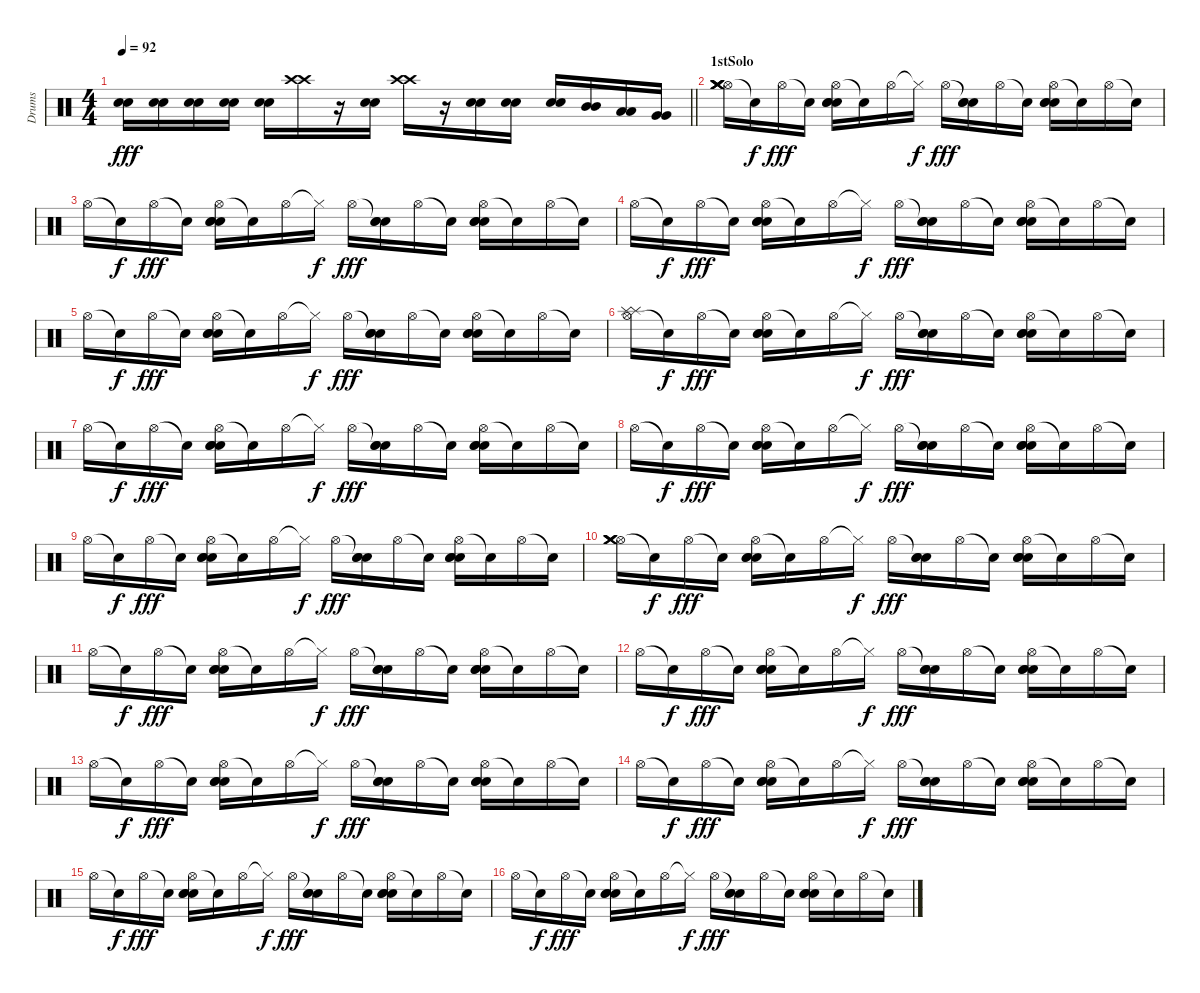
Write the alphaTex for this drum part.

\track ("Drums" "Drums") {instrument percussion}
\staff {score}
\articulation defaults
\ts (4 4)
\tempo 92
\clef neutral
\barLineRight lightlight
\ks c
("Snare (hit) 2" "Snare (hit) 2").16{dy fff} ("Snare (hit) 2" "Snare (hit) 2").16 ("Snare (hit) 2" "Snare (hit) 2").16 ("Snare (hit) 2" "Snare (hit) 2").16 ("Snare (hit) 2" "Snare (hit) 2").16 ("Crash high (hit)" "Crash high (hit)").16 r.16 ("Snare (hit) 2" "Snare (hit) 2").16 ("Crash high (hit)" "Crash high (hit)").16 r.16 ("Snare (hit) 2" "Snare (hit) 2").16 ("Snare (hit) 2" "Snare (hit) 2").16 ("Snare (hit) 2" "Snare (hit) 2").16 ("Mid Tom (hit)" "Mid Tom (hit)").16 ("Low Tom (hit)" "Low Tom (hit)").16 ("Very Low Tom (hit)" "Very Low Tom (hit)").16 |
\section ("" "1stSolo")
("Hi-Hat (open)" "Crash medium (hit)" "Crash medium (hit)" "Crash medium (hit)" "Crash medium (hit)").16 "Snare (hit)"{t}.16{dy f} "Hi-Hat (open)".16{dy fff} "Snare (hit)"{t}.16 ("Hi-Hat (open)" "Snare (hit) 2" "Snare (hit) 2" "Snare (hit) 2").16 "Snare (hit)"{t}.16 "Hi-Hat (open)".16 "Hi-Hat (closed)"{t}.16{dy f} "Hi-Hat (open)".16{dy fff} ("Snare (hit)"{t} "Snare (hit) 2" "Snare (hit) 2").16 "Hi-Hat (open)".16 "Snare (hit)"{t}.16 ("Hi-Hat (open)" "Snare (hit) 2" "Snare (hit) 2" "Snare (hit) 2").16 "Snare (hit)"{t}.16 "Hi-Hat (open)".16 "Snare (hit)"{t}.16 |
"Hi-Hat (open)".16 "Snare (hit)"{t}.16{dy f} "Hi-Hat (open)".16{dy fff} "Snare (hit)"{t}.16 ("Hi-Hat (open)" "Snare (hit) 2" "Snare (hit) 2" "Snare (hit) 2").16 "Snare (hit)"{t}.16 "Hi-Hat (open)".16 "Hi-Hat (closed)"{t}.16{dy f} "Hi-Hat (open)".16{dy fff} ("Snare (hit)"{t} "Snare (hit) 2" "Snare (hit) 2").16 "Hi-Hat (open)".16 "Snare (hit)"{t}.16 ("Hi-Hat (open)" "Snare (hit) 2" "Snare (hit) 2" "Snare (hit) 2").16 "Snare (hit)"{t}.16 "Hi-Hat (open)".16 "Snare (hit)"{t}.16 |
"Hi-Hat (open)".16 "Snare (hit)"{t}.16{dy f} "Hi-Hat (open)".16{dy fff} "Snare (hit)"{t}.16 ("Hi-Hat (open)" "Snare (hit) 2" "Snare (hit) 2" "Snare (hit) 2").16 "Snare (hit)"{t}.16 "Hi-Hat (open)".16 "Hi-Hat (closed)"{t}.16{dy f} "Hi-Hat (open)".16{dy fff} ("Snare (hit)"{t} "Snare (hit) 2" "Snare (hit) 2").16 "Hi-Hat (open)".16 "Snare (hit)"{t}.16 ("Hi-Hat (open)" "Snare (hit) 2" "Snare (hit) 2" "Snare (hit) 2").16 "Snare (hit)"{t}.16 "Hi-Hat (open)".16 "Snare (hit)"{t}.16 |
"Hi-Hat (open)".16 "Snare (hit)"{t}.16{dy f} "Hi-Hat (open)".16{dy fff} "Snare (hit)"{t}.16 ("Hi-Hat (open)" "Snare (hit) 2" "Snare (hit) 2" "Snare (hit) 2").16 "Snare (hit)"{t}.16 "Hi-Hat (open)".16 "Hi-Hat (closed)"{t}.16{dy f} "Hi-Hat (open)".16{dy fff} ("Snare (hit)"{t} "Snare (hit) 2" "Snare (hit) 2").16 "Hi-Hat (open)".16 "Snare (hit)"{t}.16 ("Hi-Hat (open)" "Snare (hit) 2" "Snare (hit) 2" "Snare (hit) 2").16 "Snare (hit)"{t}.16 "Hi-Hat (open)".16 "Snare (hit)"{t}.16 |
("Hi-Hat (open)" "Splash (hit)" "Splash (hit)").16 "Snare (hit)"{t}.16{dy f} "Hi-Hat (open)".16{dy fff} "Snare (hit)"{t}.16 ("Hi-Hat (open)" "Snare (hit) 2" "Snare (hit) 2" "Snare (hit) 2").16 "Snare (hit)"{t}.16 "Hi-Hat (open)".16 "Hi-Hat (closed)"{t}.16{dy f} "Hi-Hat (open)".16{dy fff} ("Snare (hit)"{t} "Snare (hit) 2" "Snare (hit) 2").16 "Hi-Hat (open)".16 "Snare (hit)"{t}.16 ("Hi-Hat (open)" "Snare (hit) 2" "Snare (hit) 2" "Snare (hit) 2").16 "Snare (hit)"{t}.16 "Hi-Hat (open)".16 "Snare (hit)"{t}.16 |
"Hi-Hat (open)".16 "Snare (hit)"{t}.16{dy f} "Hi-Hat (open)".16{dy fff} "Snare (hit)"{t}.16 ("Hi-Hat (open)" "Snare (hit) 2" "Snare (hit) 2" "Snare (hit) 2").16 "Snare (hit)"{t}.16 "Hi-Hat (open)".16 "Hi-Hat (closed)"{t}.16{dy f} "Hi-Hat (open)".16{dy fff} ("Snare (hit)"{t} "Snare (hit) 2" "Snare (hit) 2").16 "Hi-Hat (open)".16 "Snare (hit)"{t}.16 ("Hi-Hat (open)" "Snare (hit) 2" "Snare (hit) 2" "Snare (hit) 2").16 "Snare (hit)"{t}.16 "Hi-Hat (open)".16 "Snare (hit)"{t}.16 |
"Hi-Hat (open)".16 "Snare (hit)"{t}.16{dy f} "Hi-Hat (open)".16{dy fff} "Snare (hit)"{t}.16 ("Hi-Hat (open)" "Snare (hit) 2" "Snare (hit) 2" "Snare (hit) 2").16 "Snare (hit)"{t}.16 "Hi-Hat (open)".16 "Hi-Hat (closed)"{t}.16{dy f} "Hi-Hat (open)".16{dy fff} ("Snare (hit)"{t} "Snare (hit) 2" "Snare (hit) 2").16 "Hi-Hat (open)".16 "Snare (hit)"{t}.16 ("Hi-Hat (open)" "Snare (hit) 2" "Snare (hit) 2" "Snare (hit) 2").16 "Snare (hit)"{t}.16 "Hi-Hat (open)".16 "Snare (hit)"{t}.16 |
"Hi-Hat (open)".16 "Snare (hit)"{t}.16{dy f} "Hi-Hat (open)".16{dy fff} "Snare (hit)"{t}.16 ("Hi-Hat (open)" "Snare (hit) 2" "Snare (hit) 2" "Snare (hit) 2").16 "Snare (hit)"{t}.16 "Hi-Hat (open)".16 "Hi-Hat (closed)"{t}.16{dy f} "Hi-Hat (open)".16{dy fff} ("Snare (hit)"{t} "Snare (hit) 2" "Snare (hit) 2").16 "Hi-Hat (open)".16 "Snare (hit)"{t}.16 ("Hi-Hat (open)" "Snare (hit) 2" "Snare (hit) 2" "Snare (hit) 2").16 "Snare (hit)"{t}.16 "Hi-Hat (open)".16 "Snare (hit)"{t}.16 |
("Hi-Hat (open)" "Crash medium (hit)" "Crash medium (hit)" "Crash medium (hit)").16 "Snare (hit)"{t}.16{dy f} "Hi-Hat (open)".16{dy fff} "Snare (hit)"{t}.16 ("Hi-Hat (open)" "Snare (hit) 2" "Snare (hit) 2" "Snare (hit) 2").16 "Snare (hit)"{t}.16 "Hi-Hat (open)".16 "Hi-Hat (closed)"{t}.16{dy f} "Hi-Hat (open)".16{dy fff} ("Snare (hit)"{t} "Snare (hit) 2" "Snare (hit) 2").16 "Hi-Hat (open)".16 "Snare (hit)"{t}.16 ("Hi-Hat (open)" "Snare (hit) 2" "Snare (hit) 2" "Snare (hit) 2").16 "Snare (hit)"{t}.16 "Hi-Hat (open)".16 "Snare (hit)"{t}.16 |
"Hi-Hat (open)".16 "Snare (hit)"{t}.16{dy f} "Hi-Hat (open)".16{dy fff} "Snare (hit)"{t}.16 ("Hi-Hat (open)" "Snare (hit) 2" "Snare (hit) 2" "Snare (hit) 2").16 "Snare (hit)"{t}.16 "Hi-Hat (open)".16 "Hi-Hat (closed)"{t}.16{dy f} "Hi-Hat (open)".16{dy fff} ("Snare (hit)"{t} "Snare (hit) 2" "Snare (hit) 2").16 "Hi-Hat (open)".16 "Snare (hit)"{t}.16 ("Hi-Hat (open)" "Snare (hit) 2" "Snare (hit) 2" "Snare (hit) 2").16 "Snare (hit)"{t}.16 "Hi-Hat (open)".16 "Snare (hit)"{t}.16 |
"Hi-Hat (open)".16 "Snare (hit)"{t}.16{dy f} "Hi-Hat (open)".16{dy fff} "Snare (hit)"{t}.16 ("Hi-Hat (open)" "Snare (hit) 2" "Snare (hit) 2" "Snare (hit) 2").16 "Snare (hit)"{t}.16 "Hi-Hat (open)".16 "Hi-Hat (closed)"{t}.16{dy f} "Hi-Hat (open)".16{dy fff} ("Snare (hit)"{t} "Snare (hit) 2" "Snare (hit) 2").16 "Hi-Hat (open)".16 "Snare (hit)"{t}.16 ("Hi-Hat (open)" "Snare (hit) 2" "Snare (hit) 2" "Snare (hit) 2").16 "Snare (hit)"{t}.16 "Hi-Hat (open)".16 "Snare (hit)"{t}.16 |
"Hi-Hat (open)".16 "Snare (hit)"{t}.16{dy f} "Hi-Hat (open)".16{dy fff} "Snare (hit)"{t}.16 ("Hi-Hat (open)" "Snare (hit) 2" "Snare (hit) 2" "Snare (hit) 2").16 "Snare (hit)"{t}.16 "Hi-Hat (open)".16 "Hi-Hat (closed)"{t}.16{dy f} "Hi-Hat (open)".16{dy fff} ("Snare (hit)"{t} "Snare (hit) 2" "Snare (hit) 2").16 "Hi-Hat (open)".16 "Snare (hit)"{t}.16 ("Hi-Hat (open)" "Snare (hit) 2" "Snare (hit) 2" "Snare (hit) 2").16 "Snare (hit)"{t}.16 "Hi-Hat (open)".16 "Snare (hit)"{t}.16 |
"Hi-Hat (open)".16 "Snare (hit)"{t}.16{dy f} "Hi-Hat (open)".16{dy fff} "Snare (hit)"{t}.16 ("Hi-Hat (open)" "Snare (hit) 2" "Snare (hit) 2" "Snare (hit) 2").16 "Snare (hit)"{t}.16 "Hi-Hat (open)".16 "Hi-Hat (closed)"{t}.16{dy f} "Hi-Hat (open)".16{dy fff} ("Snare (hit)"{t} "Snare (hit) 2" "Snare (hit) 2").16 "Hi-Hat (open)".16 "Snare (hit)"{t}.16 ("Hi-Hat (open)" "Snare (hit) 2" "Snare (hit) 2" "Snare (hit) 2").16 "Snare (hit)"{t}.16 "Hi-Hat (open)".16 "Snare (hit)"{t}.16 |
"Hi-Hat (open)".16 "Snare (hit)"{t}.16{dy f} "Hi-Hat (open)".16{dy fff} "Snare (hit)"{t}.16 ("Hi-Hat (open)" "Snare (hit) 2" "Snare (hit) 2" "Snare (hit) 2").16 "Snare (hit)"{t}.16 "Hi-Hat (open)".16 "Hi-Hat (closed)"{t}.16{dy f} "Hi-Hat (open)".16{dy fff} ("Snare (hit)"{t} "Snare (hit) 2" "Snare (hit) 2").16 "Hi-Hat (open)".16 "Snare (hit)"{t}.16 ("Hi-Hat (open)" "Snare (hit) 2" "Snare (hit) 2" "Snare (hit) 2").16 "Snare (hit)"{t}.16 "Hi-Hat (open)".16 "Snare (hit)"{t}.16 |
"Hi-Hat (open)".16 "Snare (hit)"{t}.16{dy f} "Hi-Hat (open)".16{dy fff} "Snare (hit)"{t}.16 ("Hi-Hat (open)" "Snare (hit) 2" "Snare (hit) 2" "Snare (hit) 2").16 "Snare (hit)"{t}.16 "Hi-Hat (open)".16 "Hi-Hat (closed)"{t}.16{dy f} "Hi-Hat (open)".16{dy fff} ("Snare (hit)"{t} "Snare (hit) 2" "Snare (hit) 2").16 "Hi-Hat (open)".16 "Snare (hit)"{t}.16 ("Hi-Hat (open)" "Snare (hit) 2" "Snare (hit) 2" "Snare (hit) 2").16 "Snare (hit)"{t}.16 "Hi-Hat (open)".16 "Snare (hit)"{t}.16
